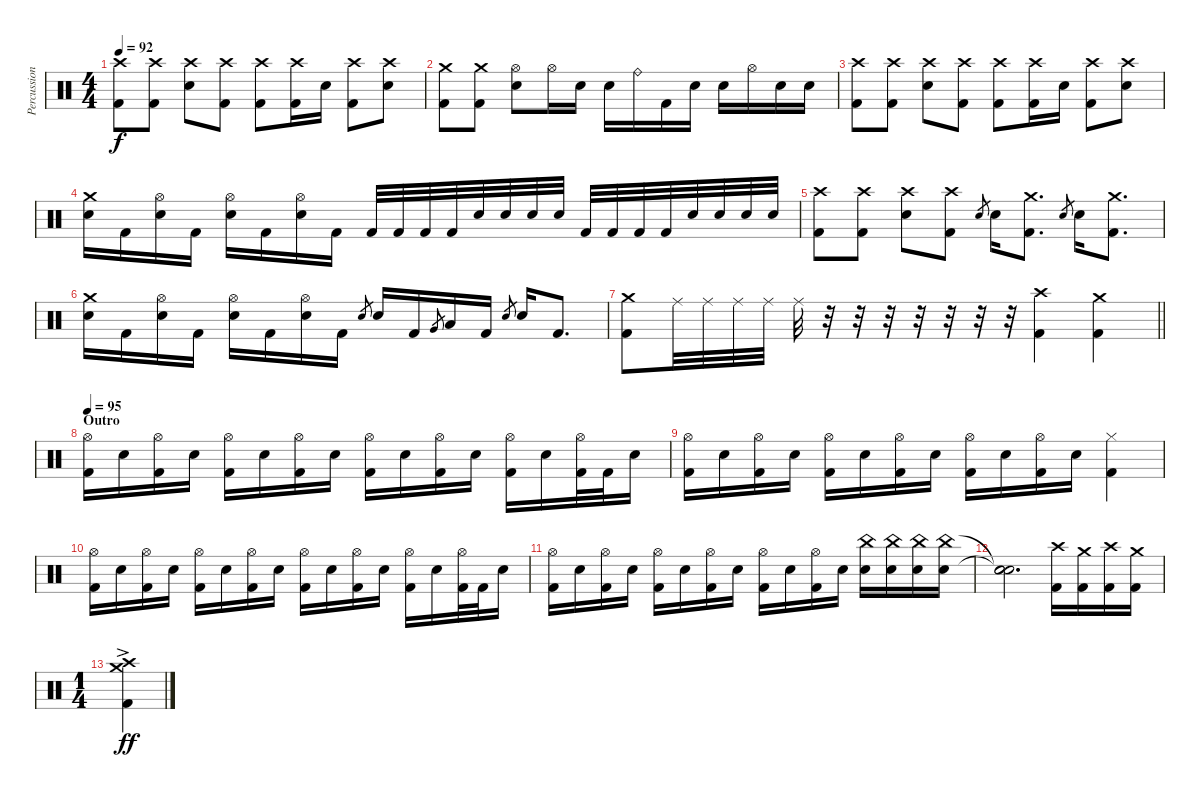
\track ("Percussion" "Percussion") {solo instrument percussion}
\staff {score}
\articulation defaults
\ts (4 4)
\tempo 92
\clef neutral
\ks c
("Crash high (hit)" "Kick (hit) 2").8{dy f} ("Crash high (hit)" "Kick (hit) 2").8 ("Crash high (hit)" "Electric Snare (hit)").8 ("Crash high (hit)" "Kick (hit) 2").8 ("Crash high (hit)" "Kick (hit) 2").8 ("Crash high (hit)" "Kick (hit) 2").16 "Electric Snare (hit)".16 ("Crash high (hit)" "Kick (hit) 2").8 ("Crash high (hit)" "Electric Snare (hit)").8 |
("Crash medium (hit)" "Kick (hit) 2").8 ("Crash medium (hit)" "Kick (hit) 2").8 ("Hi-Hat (open)" "Electric Snare (hit)").8 "Hi-Hat (open)".16 "Electric Snare (hit)".16 "Electric Snare (hit)".16 "Ride (bell)".16 "Kick (hit) 2".16 "Electric Snare (hit)".16 "Electric Snare (hit)".16 "Hi-Hat (open)".16 "Electric Snare (hit)".16 "Electric Snare (hit)".16 |
("Crash high (hit)" "Kick (hit) 2").8 ("Crash high (hit)" "Kick (hit) 2").8 ("Crash high (hit)" "Electric Snare (hit)").8 ("Crash high (hit)" "Kick (hit) 2").8 ("Crash high (hit)" "Kick (hit) 2").8 ("Crash high (hit)" "Kick (hit) 2").16 "Electric Snare (hit)".16 ("Crash high (hit)" "Kick (hit) 2").8 ("Crash high (hit)" "Electric Snare (hit)").8 |
("Crash medium (hit)" "Electric Snare (hit)").16 "Kick (hit) 2".16 ("Hi-Hat (open)" "Electric Snare (hit)").16 "Kick (hit) 2".16 ("Hi-Hat (open)" "Electric Snare (hit)").16 "Kick (hit) 2".16 ("Hi-Hat (open)" "Electric Snare (hit)").16 "Kick (hit) 2".16 "Kick (hit) 2".32 "Kick (hit) 2".32 "Kick (hit) 2".32 "Kick (hit) 2".32 "Electric Snare (hit)".32 "Electric Snare (hit)".32 "Electric Snare (hit)".32 "Electric Snare (hit)".32 "Kick (hit) 2".32 "Kick (hit) 2".32 "Kick (hit) 2".32 "Kick (hit) 2".32 "Electric Snare (hit)".32 "Electric Snare (hit)".32 "Electric Snare (hit)".32 "Electric Snare (hit)".32 |
("Crash high (hit)" "Kick (hit) 2").8 ("Crash high (hit)" "Kick (hit) 2").8 ("Crash high (hit)" "Electric Snare (hit)").8 ("Crash high (hit)" "Kick (hit) 2").8 "Electric Snare (hit)".8{gr} "Electric Snare (hit)".16 ("Crash medium (hit)" "Kick (hit) 2").8{d} "Electric Snare (hit)".8{gr} "Electric Snare (hit)".16 ("Crash medium (hit)" "Kick (hit) 2").8{d} |
("Crash medium (hit)" "Electric Snare (hit)").16 "Kick (hit) 2".16 ("Hi-Hat (open)" "Electric Snare (hit)").16 "Kick (hit) 2".16 ("Hi-Hat (open)" "Electric Snare (hit)").16 "Kick (hit) 2".16 ("Hi-Hat (open)" "Electric Snare (hit)").16 "Kick (hit) 2".16 "Electric Snare (hit)".8{gr} "Electric Snare (hit)".16 "Kick (hit) 2".16 "Very Low Tom (hit)".8{gr} "Low Floor Tom (hit)".16 "Kick (hit) 2".16 "Electric Snare (hit)".8{gr} "Electric Snare (hit)".16 "Kick (hit) 2".8{d} |
\barLineRight lightlight
("Crash medium (hit)" "Kick (hit) 2").8 "Ride (middle)".32 "Ride (middle)".32 "Ride (middle)".32 "Ride (middle)".32 "Ride (middle)".32 r.32 r.32 r.32 r.32 r.32 r.32 r.32 ("Crash high (hit)" "Kick (hit) 2").4 ("Crash medium (hit)" "Kick (hit) 2").4 |
\section ("" "Outro")
\tempo 95
("Hi-Hat (open)" "Kick (hit) 2").16 "Electric Snare (hit)".16 ("Hi-Hat (open)" "Kick (hit) 2").16 "Electric Snare (hit)".16 ("Hi-Hat (open)" "Kick (hit) 2").16 "Electric Snare (hit)".16 ("Hi-Hat (open)" "Kick (hit) 2").16 "Electric Snare (hit)".16 ("Hi-Hat (open)" "Kick (hit) 2").16 "Electric Snare (hit)".16 ("Hi-Hat (open)" "Kick (hit) 2").16 "Electric Snare (hit)".16 ("Hi-Hat (open)" "Kick (hit) 2").16 "Electric Snare (hit)".16 ("Hi-Hat (open)" "Kick (hit) 2").32 "Kick (hit) 2".32 "Electric Snare (hit)".16 |
("Hi-Hat (open)" "Kick (hit) 2").16 "Electric Snare (hit)".16 ("Hi-Hat (open)" "Kick (hit) 2").16 "Electric Snare (hit)".16 ("Hi-Hat (open)" "Kick (hit) 2").16 "Electric Snare (hit)".16 ("Hi-Hat (open)" "Kick (hit) 2").16 "Electric Snare (hit)".16 ("Hi-Hat (open)" "Kick (hit) 2").16 "Electric Snare (hit)".16 ("Hi-Hat (open)" "Kick (hit) 2").16 "Electric Snare (hit)".16 ("Hi-Hat (closed)" "Kick (hit) 2").4 |
("Hi-Hat (open)" "Kick (hit) 2").16 "Electric Snare (hit)".16 ("Hi-Hat (open)" "Kick (hit) 2").16 "Electric Snare (hit)".16 ("Hi-Hat (open)" "Kick (hit) 2").16 "Electric Snare (hit)".16 ("Hi-Hat (open)" "Kick (hit) 2").16 "Electric Snare (hit)".16 ("Hi-Hat (open)" "Kick (hit) 2").16 "Electric Snare (hit)".16 ("Hi-Hat (open)" "Kick (hit) 2").16 "Electric Snare (hit)".16 ("Hi-Hat (open)" "Kick (hit) 2").16 "Electric Snare (hit)".16 ("Hi-Hat (open)" "Kick (hit) 2").32 "Kick (hit) 2".32 "Electric Snare (hit)".16 |
("Hi-Hat (open)" "Kick (hit) 2").16 "Electric Snare (hit)".16 ("Hi-Hat (open)" "Kick (hit) 2").16 "Electric Snare (hit)".16 ("Hi-Hat (open)" "Kick (hit) 2").16 "Electric Snare (hit)".16 ("Hi-Hat (open)" "Kick (hit) 2").16 "Electric Snare (hit)".16 ("Hi-Hat (open)" "Kick (hit) 2").16 "Electric Snare (hit)".16 ("Hi-Hat (open)" "Kick (hit) 2").16 "Electric Snare (hit)".16 ("China (hit)" "Electric Snare (hit)").16 ("China (hit)" "Electric Snare (hit)").16 ("China (hit)" "Electric Snare (hit)").16 ("China (hit)" "Electric Snare (hit)").16 |
("Snare (hit)"{t} "Snare (hit)"{t} "Snare (hit)").2{d} ("Crash high (hit)" "Kick (hit) 2").16 ("Crash medium (hit)" "Kick (hit) 2").16 ("Crash high (hit)" "Kick (hit) 2").16 ("Crash medium (hit)" "Kick (hit) 2").16 |
\ts (1 4)
("Crash high (hit)" "Crash medium (hit)"{ac} "Kick (hit) 2").4{dy ff}
